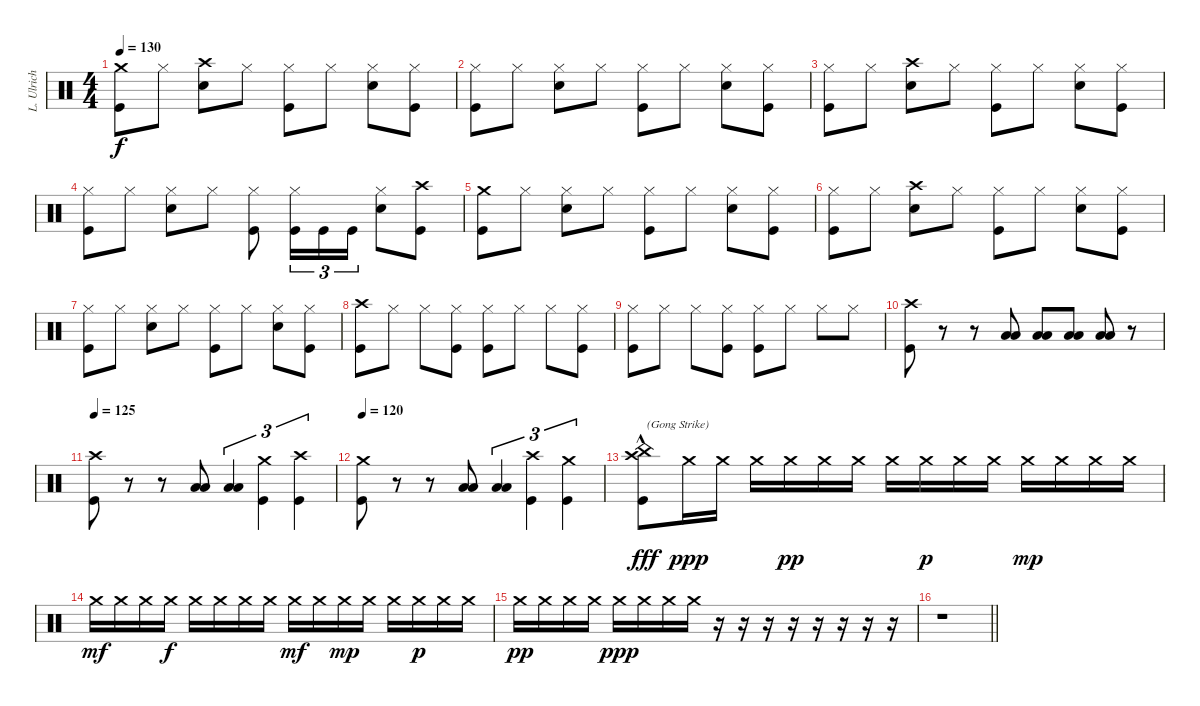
\track ("L. Ulrich" "L. Ulrich") {instrument percussion}
\staff {score}
\articulation defaults
\ts (4 4)
\tempo 130
\clef neutral
\ks c
("Crash medium (hit)" "Kick (hit)").8{dy f} "Hi-Hat (closed)".8 ("Crash high (hit)" "Snare (hit) 2").8 "Hi-Hat (closed)".8 ("Hi-Hat (closed)" "Kick (hit)").8 "Hi-Hat (closed)".8 ("Hi-Hat (closed)" "Snare (hit) 2").8 ("Hi-Hat (closed)" "Kick (hit)").8 |
("Hi-Hat (closed)" "Kick (hit)").8 "Hi-Hat (closed)".8 ("Hi-Hat (closed)" "Snare (hit) 2").8 "Hi-Hat (closed)".8 ("Hi-Hat (closed)" "Kick (hit)").8 "Hi-Hat (closed)".8 ("Hi-Hat (closed)" "Snare (hit) 2").8 ("Hi-Hat (closed)" "Kick (hit)").8 |
("Hi-Hat (closed)" "Kick (hit)").8 "Hi-Hat (closed)".8 ("Crash high (hit)" "Snare (hit) 2").8 "Hi-Hat (closed)".8 ("Hi-Hat (closed)" "Kick (hit)").8 "Hi-Hat (closed)".8 ("Hi-Hat (closed)" "Snare (hit) 2").8 ("Hi-Hat (closed)" "Kick (hit)").8 |
("Hi-Hat (closed)" "Kick (hit)").8 "Hi-Hat (closed)".8 ("Hi-Hat (closed)" "Snare (hit) 2").8 "Hi-Hat (closed)".8 ("Hi-Hat (closed)" "Kick (hit)").8 ("Hi-Hat (closed)" "Kick (hit)").16{tu (3 2)} "Kick (hit)".16{tu (3 2)} "Kick (hit)".16{tu (3 2)} ("Hi-Hat (closed)" "Snare (hit) 2").8 ("Crash high (hit)" "Kick (hit)").8 |
("Crash medium (hit)" "Kick (hit)").8 "Hi-Hat (closed)".8 ("Hi-Hat (closed)" "Snare (hit) 2").8 "Hi-Hat (closed)".8 ("Hi-Hat (closed)" "Kick (hit)").8 "Hi-Hat (closed)".8 ("Hi-Hat (closed)" "Snare (hit) 2").8 ("Hi-Hat (closed)" "Kick (hit)").8 |
("Hi-Hat (closed)" "Kick (hit)").8 "Hi-Hat (closed)".8 ("Crash high (hit)" "Snare (hit) 2").8 "Hi-Hat (closed)".8 ("Hi-Hat (closed)" "Kick (hit)").8 "Hi-Hat (closed)".8 ("Hi-Hat (closed)" "Snare (hit) 2").8 ("Hi-Hat (closed)" "Kick (hit)").8 |
("Hi-Hat (closed)" "Kick (hit)").8 "Hi-Hat (closed)".8 ("Hi-Hat (closed)" "Snare (hit) 2").8 "Hi-Hat (closed)".8 ("Hi-Hat (closed)" "Kick (hit)").8 "Hi-Hat (closed)".8 ("Hi-Hat (closed)" "Snare (hit) 2").8 ("Hi-Hat (closed)" "Kick (hit)").8 |
("Crash high (hit)" "Kick (hit)").8 "Hi-Hat (closed)".8 "Hi-Hat (closed)".8 ("Hi-Hat (closed)" "Kick (hit)").8 ("Hi-Hat (closed)" "Kick (hit)").8 "Hi-Hat (closed)".8 "Hi-Hat (closed)".8 ("Hi-Hat (closed)" "Kick (hit)").8 |
("Hi-Hat (closed)" "Kick (hit)").8 "Hi-Hat (closed)".8 "Hi-Hat (closed)".8 ("Hi-Hat (closed)" "Kick (hit)").8 ("Hi-Hat (closed)" "Kick (hit)").8 "Hi-Hat (closed)".8 "Hi-Hat (closed)".8 "Hi-Hat (closed)".8 |
("Crash high (hit)" "Kick (hit)").8 r.8 r.8 ("Low Tom (hit)" "Low Floor Tom (hit)").8 ("Low Tom (hit)" "Low Floor Tom (hit)").8 ("Low Tom (hit)" "Low Floor Tom (hit)").8 ("Low Tom (hit)" "Low Floor Tom (hit)").8 r.8 |
\tempo 125
("Crash high (hit)" "Kick (hit)").8 r.8 r.8 ("Low Tom (hit)" "Low Floor Tom (hit)").8 ("Low Tom (hit)" "Low Floor Tom (hit)").4{tu (3 2)} ("Crash medium (hit)" "Kick (hit)").4{tu (3 2)} ("Crash high (hit)" "Kick (hit)").4{tu (3 2)} |
\tempo 120
("Crash medium (hit)" "Kick (hit)").8 r.8 r.8 ("Low Tom (hit)" "Low Floor Tom (hit)").8 ("Low Tom (hit)" "Low Floor Tom (hit)").4{tu (3 2)} ("Crash high (hit)" "Kick (hit)").4{tu (3 2)} ("Crash medium (hit)" "Kick (hit)").4{tu (3 2)} |
("China (hit)"{hac} "Crash high (hit)" "Kick (hit)").8{txt "(Gong Strike)" dy fff} "Crash medium (hit)".16{dy ppp} "Crash medium (hit)".16 "Crash medium (hit)".16 "Crash medium (hit)".16{dy pp} "Crash medium (hit)".16 "Crash medium (hit)".16 "Crash medium (hit)".16 "Crash medium (hit)".16{dy p} "Crash medium (hit)".16 "Crash medium (hit)".16 "Crash medium (hit)".16{dy mp} "Crash medium (hit)".16 "Crash medium (hit)".16 "Crash medium (hit)".16 |
"Crash medium (hit)".16{dy mf} "Crash medium (hit)".16 "Crash medium (hit)".16 "Crash medium (hit)".16{dy f} "Crash medium (hit)".16 "Crash medium (hit)".16 "Crash medium (hit)".16 "Crash medium (hit)".16 "Crash medium (hit)".16{dy mf} "Crash medium (hit)".16 "Crash medium (hit)".16{dy mp} "Crash medium (hit)".16 "Crash medium (hit)".16 "Crash medium (hit)".16{dy p} "Crash medium (hit)".16 "Crash medium (hit)".16 |
"Crash medium (hit)".16{dy pp} "Crash medium (hit)".16 "Crash medium (hit)".16 "Crash medium (hit)".16 "Crash medium (hit)".16{dy ppp} "Crash medium (hit)".16 "Crash medium (hit)".16 "Crash medium (hit)".16 r.16 r.16 r.16 r.16 r.16 r.16 r.16 r.16 |
\barLineRight lightlight
r.1
